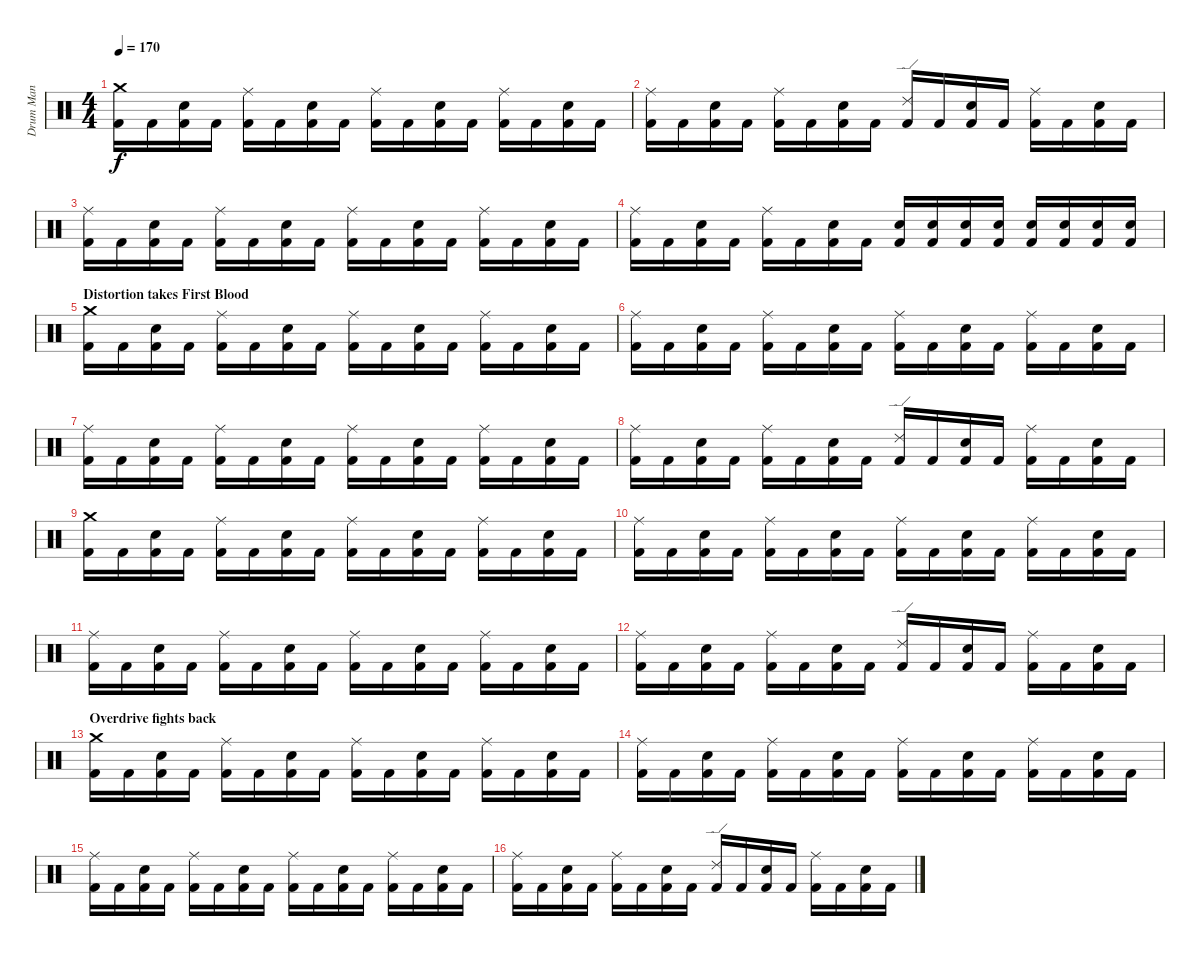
\track ("Drum Man" "Drum Man") {instrument percussion}
\staff {score}
\articulation defaults
\ts (4 4)
\tempo 170
\clef neutral
\ks c
("Crash medium (hit)" "Kick (hit) 2").16{dy f} "Kick (hit) 2".16 ("Snare (hit) 2" "Kick (hit) 2").16 "Kick (hit) 2".16 ("Ride (middle)" "Kick (hit) 2").16 "Kick (hit) 2".16 ("Snare (hit) 2" "Kick (hit) 2").16 "Kick (hit) 2".16 ("Ride (middle)" "Kick (hit) 2").16 "Kick (hit) 2".16 ("Snare (hit) 2" "Kick (hit) 2").16 "Kick (hit) 2".16 ("Ride (middle)" "Kick (hit) 2").16 "Kick (hit) 2".16 ("Snare (hit) 2" "Kick (hit) 2").16 "Kick (hit) 2".16 |
("Ride (middle)" "Kick (hit) 2").16 "Kick (hit) 2".16 ("Snare (hit) 2" "Kick (hit) 2").16 "Kick (hit) 2".16 ("Ride (middle)" "Kick (hit) 2").16 "Kick (hit) 2".16 ("Snare (hit) 2" "Kick (hit) 2").16 "Kick (hit) 2".16 ("Ride (edge) 2" "Kick (hit) 2").16 "Kick (hit) 2".16 ("Snare (hit) 2" "Kick (hit) 2").16 "Kick (hit) 2".16 ("Ride (middle)" "Kick (hit) 2").16 "Kick (hit) 2".16 ("Snare (hit) 2" "Kick (hit) 2").16 "Kick (hit) 2".16 |
("Ride (middle)" "Kick (hit) 2").16 "Kick (hit) 2".16 ("Snare (hit) 2" "Kick (hit) 2").16 "Kick (hit) 2".16 ("Ride (middle)" "Kick (hit) 2").16 "Kick (hit) 2".16 ("Snare (hit) 2" "Kick (hit) 2").16 "Kick (hit) 2".16 ("Ride (middle)" "Kick (hit) 2").16 "Kick (hit) 2".16 ("Snare (hit) 2" "Kick (hit) 2").16 "Kick (hit) 2".16 ("Ride (middle)" "Kick (hit) 2").16 "Kick (hit) 2".16 ("Snare (hit) 2" "Kick (hit) 2").16 "Kick (hit) 2".16 |
("Ride (middle)" "Kick (hit) 2").16 "Kick (hit) 2".16 ("Snare (hit) 2" "Kick (hit) 2").16 "Kick (hit) 2".16 ("Ride (middle)" "Kick (hit) 2").16 "Kick (hit) 2".16 ("Snare (hit) 2" "Kick (hit) 2").16 "Kick (hit) 2".16 ("Electric Snare (hit)" "Kick (hit) 2").16 ("Electric Snare (hit)" "Kick (hit) 2").16 ("Electric Snare (hit)" "Kick (hit) 2").16 ("Electric Snare (hit)" "Kick (hit) 2").16 ("Electric Snare (hit)" "Kick (hit) 2").16 ("Electric Snare (hit)" "Kick (hit) 2").16 ("Electric Snare (hit)" "Kick (hit) 2").16 ("Electric Snare (hit)" "Kick (hit) 2").16 |
\section ("" "Distortion takes First Blood")
("Crash medium (hit)" "Kick (hit) 2").16 "Kick (hit) 2".16 ("Snare (hit) 2" "Kick (hit) 2").16 "Kick (hit) 2".16 ("Ride (middle)" "Kick (hit) 2").16 "Kick (hit) 2".16 ("Snare (hit) 2" "Kick (hit) 2").16 "Kick (hit) 2".16 ("Ride (middle)" "Kick (hit) 2").16 "Kick (hit) 2".16 ("Snare (hit) 2" "Kick (hit) 2").16 "Kick (hit) 2".16 ("Ride (middle)" "Kick (hit) 2").16 "Kick (hit) 2".16 ("Snare (hit) 2" "Kick (hit) 2").16 "Kick (hit) 2".16 |
("Ride (middle)" "Kick (hit) 2").16 "Kick (hit) 2".16 ("Snare (hit) 2" "Kick (hit) 2").16 "Kick (hit) 2".16 ("Ride (middle)" "Kick (hit) 2").16 "Kick (hit) 2".16 ("Snare (hit) 2" "Kick (hit) 2").16 "Kick (hit) 2".16 ("Ride (middle)" "Kick (hit) 2").16 "Kick (hit) 2".16 ("Snare (hit) 2" "Kick (hit) 2").16 "Kick (hit) 2".16 ("Ride (middle)" "Kick (hit) 2").16 "Kick (hit) 2".16 ("Snare (hit) 2" "Kick (hit) 2").16 "Kick (hit) 2".16 |
("Ride (middle)" "Kick (hit) 2").16 "Kick (hit) 2".16 ("Snare (hit) 2" "Kick (hit) 2").16 "Kick (hit) 2".16 ("Ride (middle)" "Kick (hit) 2").16 "Kick (hit) 2".16 ("Snare (hit) 2" "Kick (hit) 2").16 "Kick (hit) 2".16 ("Ride (middle)" "Kick (hit) 2").16 "Kick (hit) 2".16 ("Snare (hit) 2" "Kick (hit) 2").16 "Kick (hit) 2".16 ("Ride (middle)" "Kick (hit) 2").16 "Kick (hit) 2".16 ("Snare (hit) 2" "Kick (hit) 2").16 "Kick (hit) 2".16 |
("Ride (middle)" "Kick (hit) 2").16 "Kick (hit) 2".16 ("Snare (hit) 2" "Kick (hit) 2").16 "Kick (hit) 2".16 ("Ride (middle)" "Kick (hit) 2").16 "Kick (hit) 2".16 ("Snare (hit) 2" "Kick (hit) 2").16 "Kick (hit) 2".16 ("Ride (edge) 2" "Kick (hit) 2").16 "Kick (hit) 2".16 ("Snare (hit) 2" "Kick (hit) 2").16 "Kick (hit) 2".16 ("Ride (middle)" "Kick (hit) 2").16 "Kick (hit) 2".16 ("Snare (hit) 2" "Kick (hit) 2").16 "Kick (hit) 2".16 |
("Crash medium (hit)" "Kick (hit) 2").16 "Kick (hit) 2".16 ("Snare (hit) 2" "Kick (hit) 2").16 "Kick (hit) 2".16 ("Ride (middle)" "Kick (hit) 2").16 "Kick (hit) 2".16 ("Snare (hit) 2" "Kick (hit) 2").16 "Kick (hit) 2".16 ("Ride (middle)" "Kick (hit) 2").16 "Kick (hit) 2".16 ("Snare (hit) 2" "Kick (hit) 2").16 "Kick (hit) 2".16 ("Ride (middle)" "Kick (hit) 2").16 "Kick (hit) 2".16 ("Snare (hit) 2" "Kick (hit) 2").16 "Kick (hit) 2".16 |
("Ride (middle)" "Kick (hit) 2").16 "Kick (hit) 2".16 ("Snare (hit) 2" "Kick (hit) 2").16 "Kick (hit) 2".16 ("Ride (middle)" "Kick (hit) 2").16 "Kick (hit) 2".16 ("Snare (hit) 2" "Kick (hit) 2").16 "Kick (hit) 2".16 ("Ride (middle)" "Kick (hit) 2").16 "Kick (hit) 2".16 ("Snare (hit) 2" "Kick (hit) 2").16 "Kick (hit) 2".16 ("Ride (middle)" "Kick (hit) 2").16 "Kick (hit) 2".16 ("Snare (hit) 2" "Kick (hit) 2").16 "Kick (hit) 2".16 |
("Ride (middle)" "Kick (hit) 2").16 "Kick (hit) 2".16 ("Snare (hit) 2" "Kick (hit) 2").16 "Kick (hit) 2".16 ("Ride (middle)" "Kick (hit) 2").16 "Kick (hit) 2".16 ("Snare (hit) 2" "Kick (hit) 2").16 "Kick (hit) 2".16 ("Ride (middle)" "Kick (hit) 2").16 "Kick (hit) 2".16 ("Snare (hit) 2" "Kick (hit) 2").16 "Kick (hit) 2".16 ("Ride (middle)" "Kick (hit) 2").16 "Kick (hit) 2".16 ("Snare (hit) 2" "Kick (hit) 2").16 "Kick (hit) 2".16 |
("Ride (middle)" "Kick (hit) 2").16 "Kick (hit) 2".16 ("Snare (hit) 2" "Kick (hit) 2").16 "Kick (hit) 2".16 ("Ride (middle)" "Kick (hit) 2").16 "Kick (hit) 2".16 ("Snare (hit) 2" "Kick (hit) 2").16 "Kick (hit) 2".16 ("Ride (edge) 2" "Kick (hit) 2").16 "Kick (hit) 2".16 ("Snare (hit) 2" "Kick (hit) 2").16 "Kick (hit) 2".16 ("Ride (middle)" "Kick (hit) 2").16 "Kick (hit) 2".16 ("Snare (hit) 2" "Kick (hit) 2").16 "Kick (hit) 2".16 |
\section ("" "Overdrive fights back")
("Crash medium (hit)" "Kick (hit) 2").16 "Kick (hit) 2".16 ("Snare (hit) 2" "Kick (hit) 2").16 "Kick (hit) 2".16 ("Ride (middle)" "Kick (hit) 2").16 "Kick (hit) 2".16 ("Snare (hit) 2" "Kick (hit) 2").16 "Kick (hit) 2".16 ("Ride (middle)" "Kick (hit) 2").16 "Kick (hit) 2".16 ("Snare (hit) 2" "Kick (hit) 2").16 "Kick (hit) 2".16 ("Ride (middle)" "Kick (hit) 2").16 "Kick (hit) 2".16 ("Snare (hit) 2" "Kick (hit) 2").16 "Kick (hit) 2".16 |
("Ride (middle)" "Kick (hit) 2").16 "Kick (hit) 2".16 ("Snare (hit) 2" "Kick (hit) 2").16 "Kick (hit) 2".16 ("Ride (middle)" "Kick (hit) 2").16 "Kick (hit) 2".16 ("Snare (hit) 2" "Kick (hit) 2").16 "Kick (hit) 2".16 ("Ride (middle)" "Kick (hit) 2").16 "Kick (hit) 2".16 ("Snare (hit) 2" "Kick (hit) 2").16 "Kick (hit) 2".16 ("Ride (middle)" "Kick (hit) 2").16 "Kick (hit) 2".16 ("Snare (hit) 2" "Kick (hit) 2").16 "Kick (hit) 2".16 |
("Ride (middle)" "Kick (hit) 2").16 "Kick (hit) 2".16 ("Snare (hit) 2" "Kick (hit) 2").16 "Kick (hit) 2".16 ("Ride (middle)" "Kick (hit) 2").16 "Kick (hit) 2".16 ("Snare (hit) 2" "Kick (hit) 2").16 "Kick (hit) 2".16 ("Ride (middle)" "Kick (hit) 2").16 "Kick (hit) 2".16 ("Snare (hit) 2" "Kick (hit) 2").16 "Kick (hit) 2".16 ("Ride (middle)" "Kick (hit) 2").16 "Kick (hit) 2".16 ("Snare (hit) 2" "Kick (hit) 2").16 "Kick (hit) 2".16 |
("Ride (middle)" "Kick (hit) 2").16 "Kick (hit) 2".16 ("Snare (hit) 2" "Kick (hit) 2").16 "Kick (hit) 2".16 ("Ride (middle)" "Kick (hit) 2").16 "Kick (hit) 2".16 ("Snare (hit) 2" "Kick (hit) 2").16 "Kick (hit) 2".16 ("Ride (edge) 2" "Kick (hit) 2").16 "Kick (hit) 2".16 ("Snare (hit) 2" "Kick (hit) 2").16 "Kick (hit) 2".16 ("Ride (middle)" "Kick (hit) 2").16 "Kick (hit) 2".16 ("Snare (hit) 2" "Kick (hit) 2").16 "Kick (hit) 2".16
